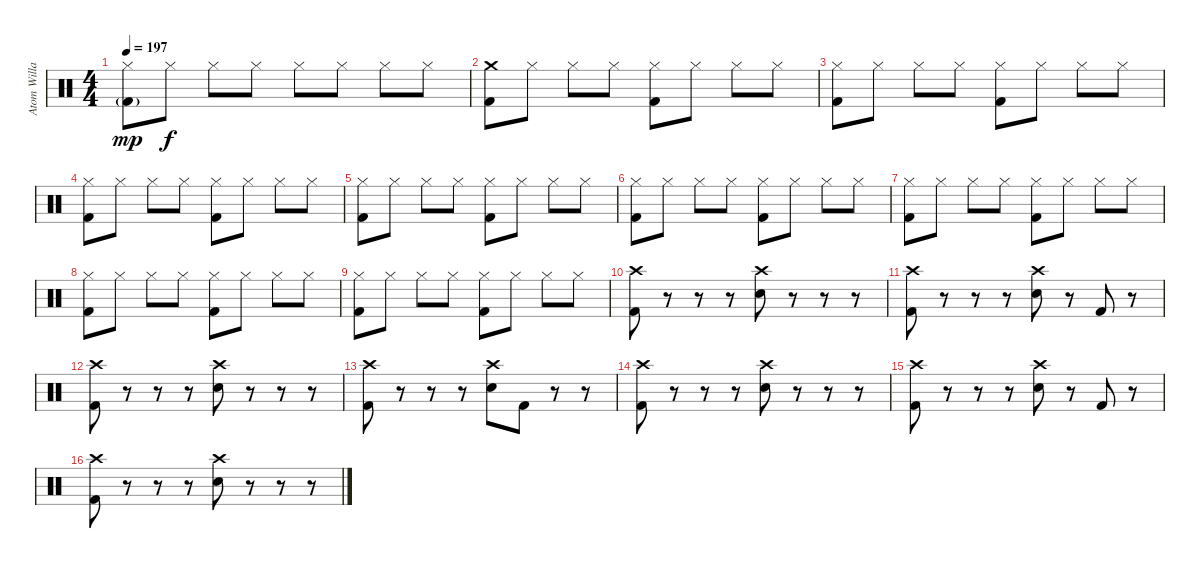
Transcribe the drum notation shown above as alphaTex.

\track ("Atom Willard Drums" "Atom Willa") {instrument percussion}
\staff {score}
\articulation defaults
\ts (4 4)
\tempo 197
\clef neutral
\ks c
("Hi-Hat (closed)" "Kick (hit) 2"{g}).8{dy mp} "Hi-Hat (closed)".8{dy f} "Hi-Hat (closed)".8 "Hi-Hat (closed)".8 "Hi-Hat (closed)".8 "Hi-Hat (closed)".8 "Hi-Hat (closed)".8 "Hi-Hat (closed)".8 |
("Crash medium (hit)" "Kick (hit) 2").8 "Hi-Hat (closed)".8 "Hi-Hat (closed)".8 "Hi-Hat (closed)".8 ("Hi-Hat (closed)" "Kick (hit) 2").8 "Hi-Hat (closed)".8 "Hi-Hat (closed)".8 "Hi-Hat (closed)".8 |
("Hi-Hat (closed)" "Kick (hit) 2").8 "Hi-Hat (closed)".8 "Hi-Hat (closed)".8 "Hi-Hat (closed)".8 ("Hi-Hat (closed)" "Kick (hit) 2").8 "Hi-Hat (closed)".8 "Hi-Hat (closed)".8 "Hi-Hat (closed)".8 |
("Hi-Hat (closed)" "Kick (hit) 2").8 "Hi-Hat (closed)".8 "Hi-Hat (closed)".8 "Hi-Hat (closed)".8 ("Hi-Hat (closed)" "Kick (hit) 2").8 "Hi-Hat (closed)".8 "Hi-Hat (closed)".8 "Hi-Hat (closed)".8 |
("Hi-Hat (closed)" "Kick (hit) 2").8 "Hi-Hat (closed)".8 "Hi-Hat (closed)".8 "Hi-Hat (closed)".8 ("Hi-Hat (closed)" "Kick (hit) 2").8 "Hi-Hat (closed)".8 "Hi-Hat (closed)".8 "Hi-Hat (closed)".8 |
("Hi-Hat (closed)" "Kick (hit) 2").8 "Hi-Hat (closed)".8 "Hi-Hat (closed)".8 "Hi-Hat (closed)".8 ("Hi-Hat (closed)" "Kick (hit) 2").8 "Hi-Hat (closed)".8 "Hi-Hat (closed)".8 "Hi-Hat (closed)".8 |
("Hi-Hat (closed)" "Kick (hit) 2").8 "Hi-Hat (closed)".8 "Hi-Hat (closed)".8 "Hi-Hat (closed)".8 ("Hi-Hat (closed)" "Kick (hit) 2").8 "Hi-Hat (closed)".8 "Hi-Hat (closed)".8 "Hi-Hat (closed)".8 |
("Hi-Hat (closed)" "Kick (hit) 2").8 "Hi-Hat (closed)".8 "Hi-Hat (closed)".8 "Hi-Hat (closed)".8 ("Hi-Hat (closed)" "Kick (hit) 2").8 "Hi-Hat (closed)".8 "Hi-Hat (closed)".8 "Hi-Hat (closed)".8 |
("Hi-Hat (closed)" "Kick (hit) 2").8 "Hi-Hat (closed)".8 "Hi-Hat (closed)".8 "Hi-Hat (closed)".8 ("Hi-Hat (closed)" "Kick (hit) 2").8 "Hi-Hat (closed)".8 "Hi-Hat (closed)".8 "Hi-Hat (closed)".8 |
("Crash high (hit)" "Kick (hit) 2").8 r.8 r.8 r.8 ("Crash high (hit)" "Electric Snare (hit)").8 r.8 r.8 r.8 |
("Crash high (hit)" "Kick (hit) 2").8 r.8 r.8 r.8 ("Crash high (hit)" "Electric Snare (hit)").8 r.8 "Kick (hit) 2".8 r.8 |
("Crash high (hit)" "Kick (hit) 2").8 r.8 r.8 r.8 ("Crash high (hit)" "Electric Snare (hit)").8 r.8 r.8 r.8 |
("Crash high (hit)" "Kick (hit) 2").8 r.8 r.8 r.8 ("Crash high (hit)" "Electric Snare (hit)").8 "Kick (hit) 2".8 r.8 r.8 |
("Crash high (hit)" "Kick (hit) 2").8 r.8 r.8 r.8 ("Crash high (hit)" "Electric Snare (hit)").8 r.8 r.8 r.8 |
("Crash high (hit)" "Kick (hit) 2").8 r.8 r.8 r.8 ("Crash high (hit)" "Electric Snare (hit)").8 r.8 "Kick (hit) 2".8 r.8 |
("Crash high (hit)" "Kick (hit) 2").8 r.8 r.8 r.8 ("Crash high (hit)" "Electric Snare (hit)").8 r.8 r.8 r.8
